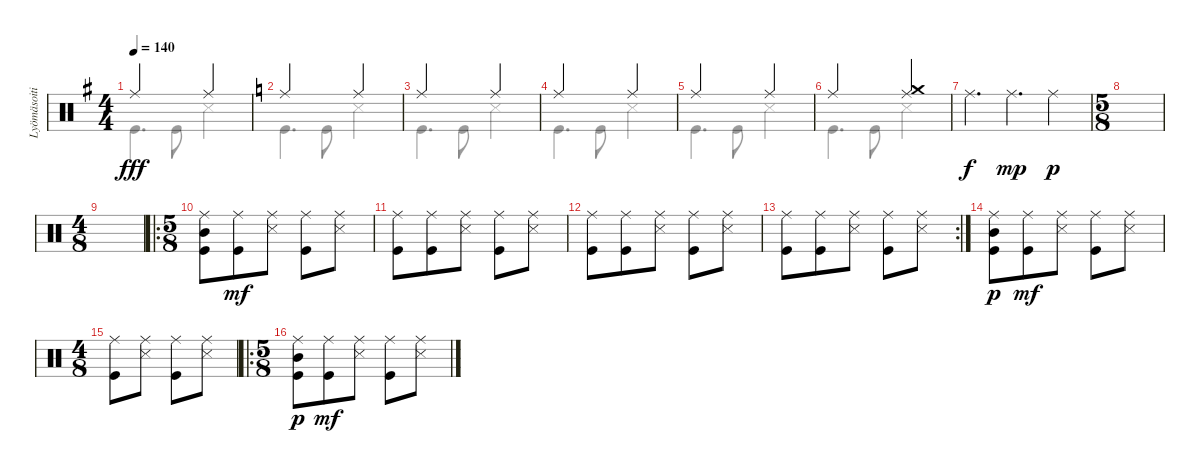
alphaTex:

\track ("Lyömäsoitin" "Lyömäsoiti") {instrument percussion}
\staff {score}
\articulation defaults
\voice
\ts (4 4)
\tempo 140
\clef neutral
\ks eminor "Ride (middle)".2{dy fff} "Ride (middle)".2
|
\ks aminor "Ride (middle)".2 "Ride (middle)".2
|
"Ride (middle)".2 "Ride (middle)".2 |
"Ride (middle)".2 "Ride (middle)".2 |
"Ride (middle)".2 "Ride (middle)".2 |
"Ride (middle)".2 ("Ride (middle)" "Crash medium (hit)").2 |
"Ride (middle)".4{d dy f} "Ride (middle)".4{d dy mp} "Ride (middle)".4{dy p} |
\ts (5 8)
\ks c
|
\ts (4 8)
|
\ro
\ts (5 8)
("Ride (middle)" "Kick (hit)" "Mid Tom (hit)").8{volume 13} ("Ride (middle)" "Kick (hit)").8{dy mf} ("Ride (middle)" "Snare (side stick) 3").8 ("Ride (middle)" "Kick (hit)").8 ("Ride (middle)" "Snare (side stick) 3").8 |
("Ride (middle)" "Kick (hit)").8 ("Ride (middle)" "Kick (hit)").8 ("Ride (middle)" "Snare (side stick) 3").8 ("Ride (middle)" "Kick (hit)").8 ("Ride (middle)" "Snare (side stick) 3").8 |
("Ride (middle)" "Kick (hit)").8 ("Ride (middle)" "Kick (hit)").8 ("Ride (middle)" "Snare (side stick) 3").8 ("Ride (middle)" "Kick (hit)").8 ("Ride (middle)" "Snare (side stick) 3").8 |
\rc 2
("Ride (middle)" "Kick (hit)").8 ("Ride (middle)" "Kick (hit)").8 ("Ride (middle)" "Snare (side stick) 3").8 ("Ride (middle)" "Kick (hit)").8 ("Ride (middle)" "Snare (side stick) 3").8 |
("Ride (middle)" "Kick (hit)" "Mid Tom (hit)").8{dy p} ("Ride (middle)" "Kick (hit)").8{dy mf} ("Ride (middle)" "Snare (side stick) 3").8 ("Ride (middle)" "Kick (hit)").8 ("Ride (middle)" "Snare (side stick) 3").8 |
\ts (4 8)
("Ride (middle)" "Kick (hit)").8 ("Ride (middle)" "Snare (side stick) 3").8 ("Ride (middle)" "Kick (hit)").8 ("Ride (middle)" "Snare (side stick) 3").8 |
\ro
\ts (5 8)
("Ride (middle)" "Kick (hit)" "Mid Tom (hit)").8{dy p} ("Ride (middle)" "Kick (hit)").8{dy mf} ("Ride (middle)" "Snare (side stick) 3").8 ("Ride (middle)" "Kick (hit)").8 ("Ride (middle)" "Snare (side stick) 3").8
\voice
\clef neutral
\ottava regular
\simile none
\ks eminor "Kick (hit)".4{d dy fff} "Kick (hit)".8 "Snare (side stick) 3".2
|
\ks aminor "Kick (hit)".4{d} "Kick (hit)".8 "Snare (side stick) 3".2
|
"Kick (hit)".4{d} "Kick (hit)".8 "Snare (side stick) 3".2 |
"Kick (hit)".4{d} "Kick (hit)".8 "Snare (side stick) 3".2 |
"Kick (hit)".4{d} "Kick (hit)".8 "Snare (side stick) 3".2 |
"Kick (hit)".4{d} "Kick (hit)".8 "Snare (side stick) 3".2 |
|
\ks c
|
|
|
|
|
|
|
|
